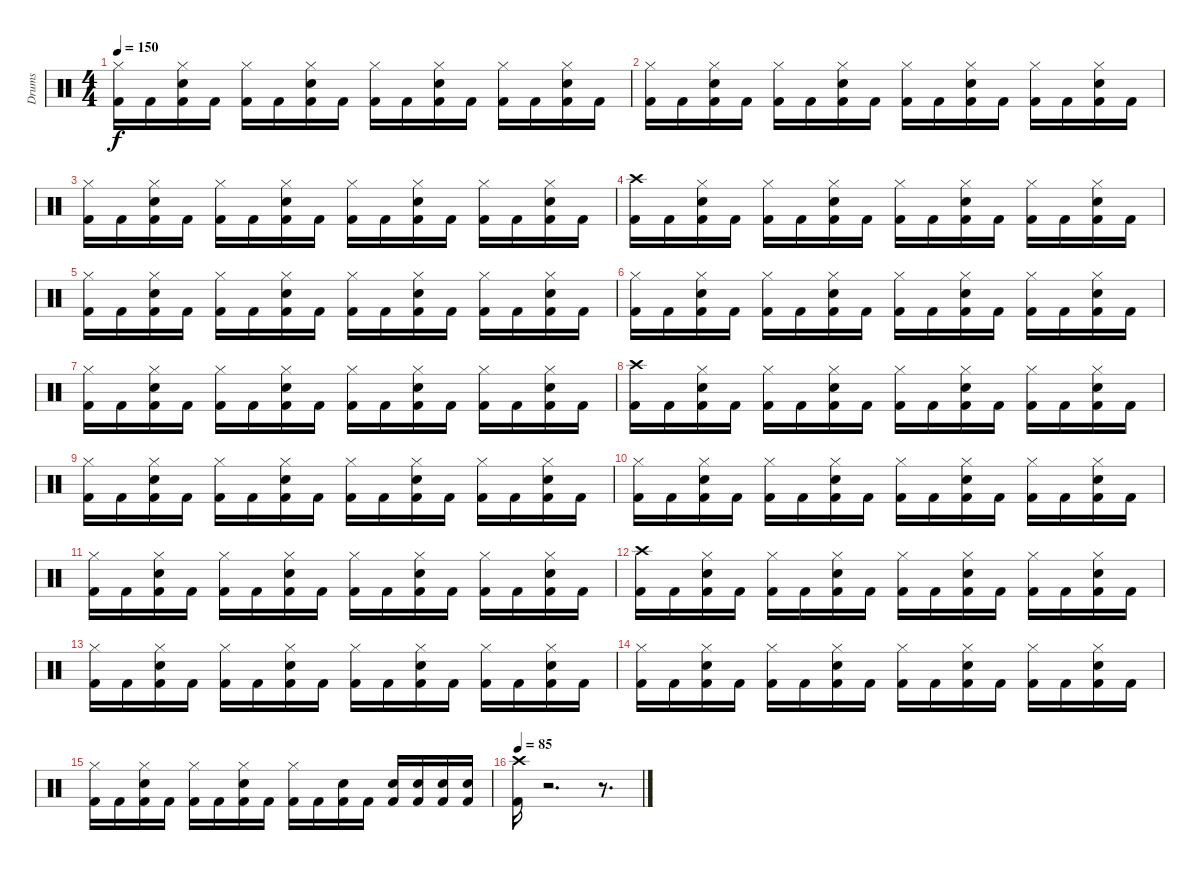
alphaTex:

\track ("Drums" "Drums") {instrument percussion}
\staff {score}
\articulation defaults
\ts (4 4)
\tempo 150
\clef neutral
\ks c
("Hi-Hat (closed)" "Kick (hit) 2").16{dy f} "Kick (hit) 2".16 ("Hi-Hat (closed)" "Electric Snare (hit)" "Kick (hit) 2").16 "Kick (hit) 2".16 ("Hi-Hat (closed)" "Kick (hit) 2").16 "Kick (hit) 2".16 ("Hi-Hat (closed)" "Electric Snare (hit)" "Kick (hit) 2").16 "Kick (hit) 2".16 ("Hi-Hat (closed)" "Kick (hit) 2").16 "Kick (hit) 2".16 ("Hi-Hat (closed)" "Electric Snare (hit)" "Kick (hit) 2").16 "Kick (hit) 2".16 ("Hi-Hat (closed)" "Kick (hit) 2").16 "Kick (hit) 2".16 ("Hi-Hat (closed)" "Electric Snare (hit)" "Kick (hit) 2").16 "Kick (hit) 2".16 |
("Hi-Hat (closed)" "Kick (hit) 2").16 "Kick (hit) 2".16 ("Hi-Hat (closed)" "Electric Snare (hit)" "Kick (hit) 2").16 "Kick (hit) 2".16 ("Hi-Hat (closed)" "Kick (hit) 2").16 "Kick (hit) 2".16 ("Hi-Hat (closed)" "Electric Snare (hit)" "Kick (hit) 2").16 "Kick (hit) 2".16 ("Hi-Hat (closed)" "Kick (hit) 2").16 "Kick (hit) 2".16 ("Hi-Hat (closed)" "Electric Snare (hit)" "Kick (hit) 2").16 "Kick (hit) 2".16 ("Hi-Hat (closed)" "Kick (hit) 2").16 "Kick (hit) 2".16 ("Hi-Hat (closed)" "Electric Snare (hit)" "Kick (hit) 2").16 "Kick (hit) 2".16 |
("Hi-Hat (closed)" "Kick (hit) 2").16 "Kick (hit) 2".16 ("Hi-Hat (closed)" "Electric Snare (hit)" "Kick (hit) 2").16 "Kick (hit) 2".16 ("Hi-Hat (closed)" "Kick (hit) 2").16 "Kick (hit) 2".16 ("Hi-Hat (closed)" "Electric Snare (hit)" "Kick (hit) 2").16 "Kick (hit) 2".16 ("Hi-Hat (closed)" "Kick (hit) 2").16 "Kick (hit) 2".16 ("Hi-Hat (closed)" "Electric Snare (hit)" "Kick (hit) 2").16 "Kick (hit) 2".16 ("Hi-Hat (closed)" "Kick (hit) 2").16 "Kick (hit) 2".16 ("Hi-Hat (closed)" "Electric Snare (hit)" "Kick (hit) 2").16 "Kick (hit) 2".16 |
("Crash high (hit)" "Kick (hit) 2").16 "Kick (hit) 2".16 ("Hi-Hat (closed)" "Electric Snare (hit)" "Kick (hit) 2").16 "Kick (hit) 2".16 ("Hi-Hat (closed)" "Kick (hit) 2").16 "Kick (hit) 2".16 ("Hi-Hat (closed)" "Electric Snare (hit)" "Kick (hit) 2").16 "Kick (hit) 2".16 ("Hi-Hat (closed)" "Kick (hit) 2").16 "Kick (hit) 2".16 ("Hi-Hat (closed)" "Electric Snare (hit)" "Kick (hit) 2").16 "Kick (hit) 2".16 ("Hi-Hat (closed)" "Kick (hit) 2").16 "Kick (hit) 2".16 ("Hi-Hat (closed)" "Electric Snare (hit)" "Kick (hit) 2").16 "Kick (hit) 2".16 |
("Hi-Hat (closed)" "Kick (hit) 2").16 "Kick (hit) 2".16 ("Hi-Hat (closed)" "Electric Snare (hit)" "Kick (hit) 2").16 "Kick (hit) 2".16 ("Hi-Hat (closed)" "Kick (hit) 2").16 "Kick (hit) 2".16 ("Hi-Hat (closed)" "Electric Snare (hit)" "Kick (hit) 2").16 "Kick (hit) 2".16 ("Hi-Hat (closed)" "Kick (hit) 2").16 "Kick (hit) 2".16 ("Hi-Hat (closed)" "Electric Snare (hit)" "Kick (hit) 2").16 "Kick (hit) 2".16 ("Hi-Hat (closed)" "Kick (hit) 2").16 "Kick (hit) 2".16 ("Hi-Hat (closed)" "Electric Snare (hit)" "Kick (hit) 2").16 "Kick (hit) 2".16 |
("Hi-Hat (closed)" "Kick (hit) 2").16 "Kick (hit) 2".16 ("Hi-Hat (closed)" "Electric Snare (hit)" "Kick (hit) 2").16 "Kick (hit) 2".16 ("Hi-Hat (closed)" "Kick (hit) 2").16 "Kick (hit) 2".16 ("Hi-Hat (closed)" "Electric Snare (hit)" "Kick (hit) 2").16 "Kick (hit) 2".16 ("Hi-Hat (closed)" "Kick (hit) 2").16 "Kick (hit) 2".16 ("Hi-Hat (closed)" "Electric Snare (hit)" "Kick (hit) 2").16 "Kick (hit) 2".16 ("Hi-Hat (closed)" "Kick (hit) 2").16 "Kick (hit) 2".16 ("Hi-Hat (closed)" "Electric Snare (hit)" "Kick (hit) 2").16 "Kick (hit) 2".16 |
("Hi-Hat (closed)" "Kick (hit) 2").16 "Kick (hit) 2".16 ("Hi-Hat (closed)" "Electric Snare (hit)" "Kick (hit) 2").16 "Kick (hit) 2".16 ("Hi-Hat (closed)" "Kick (hit) 2").16 "Kick (hit) 2".16 ("Hi-Hat (closed)" "Electric Snare (hit)" "Kick (hit) 2").16 "Kick (hit) 2".16 ("Hi-Hat (closed)" "Kick (hit) 2").16 "Kick (hit) 2".16 ("Hi-Hat (closed)" "Electric Snare (hit)" "Kick (hit) 2").16 "Kick (hit) 2".16 ("Hi-Hat (closed)" "Kick (hit) 2").16 "Kick (hit) 2".16 ("Hi-Hat (closed)" "Electric Snare (hit)" "Kick (hit) 2").16 "Kick (hit) 2".16 |
("Crash high (hit)" "Kick (hit) 2").16 "Kick (hit) 2".16 ("Hi-Hat (closed)" "Electric Snare (hit)" "Kick (hit) 2").16 "Kick (hit) 2".16 ("Hi-Hat (closed)" "Kick (hit) 2").16 "Kick (hit) 2".16 ("Hi-Hat (closed)" "Electric Snare (hit)" "Kick (hit) 2").16 "Kick (hit) 2".16 ("Hi-Hat (closed)" "Kick (hit) 2").16 "Kick (hit) 2".16 ("Hi-Hat (closed)" "Electric Snare (hit)" "Kick (hit) 2").16 "Kick (hit) 2".16 ("Hi-Hat (closed)" "Kick (hit) 2").16 "Kick (hit) 2".16 ("Hi-Hat (closed)" "Electric Snare (hit)" "Kick (hit) 2").16 "Kick (hit) 2".16 |
("Hi-Hat (closed)" "Kick (hit) 2").16 "Kick (hit) 2".16 ("Hi-Hat (closed)" "Electric Snare (hit)" "Kick (hit) 2").16 "Kick (hit) 2".16 ("Hi-Hat (closed)" "Kick (hit) 2").16 "Kick (hit) 2".16 ("Hi-Hat (closed)" "Electric Snare (hit)" "Kick (hit) 2").16 "Kick (hit) 2".16 ("Hi-Hat (closed)" "Kick (hit) 2").16 "Kick (hit) 2".16 ("Hi-Hat (closed)" "Electric Snare (hit)" "Kick (hit) 2").16 "Kick (hit) 2".16 ("Hi-Hat (closed)" "Kick (hit) 2").16 "Kick (hit) 2".16 ("Hi-Hat (closed)" "Electric Snare (hit)" "Kick (hit) 2").16 "Kick (hit) 2".16 |
("Hi-Hat (closed)" "Kick (hit) 2").16 "Kick (hit) 2".16 ("Hi-Hat (closed)" "Electric Snare (hit)" "Kick (hit) 2").16 "Kick (hit) 2".16 ("Hi-Hat (closed)" "Kick (hit) 2").16 "Kick (hit) 2".16 ("Hi-Hat (closed)" "Electric Snare (hit)" "Kick (hit) 2").16 "Kick (hit) 2".16 ("Hi-Hat (closed)" "Kick (hit) 2").16 "Kick (hit) 2".16 ("Hi-Hat (closed)" "Electric Snare (hit)" "Kick (hit) 2").16 "Kick (hit) 2".16 ("Hi-Hat (closed)" "Kick (hit) 2").16 "Kick (hit) 2".16 ("Hi-Hat (closed)" "Electric Snare (hit)" "Kick (hit) 2").16 "Kick (hit) 2".16 |
("Hi-Hat (closed)" "Kick (hit) 2").16 "Kick (hit) 2".16 ("Hi-Hat (closed)" "Electric Snare (hit)" "Kick (hit) 2").16 "Kick (hit) 2".16 ("Hi-Hat (closed)" "Kick (hit) 2").16 "Kick (hit) 2".16 ("Hi-Hat (closed)" "Electric Snare (hit)" "Kick (hit) 2").16 "Kick (hit) 2".16 ("Hi-Hat (closed)" "Kick (hit) 2").16 "Kick (hit) 2".16 ("Hi-Hat (closed)" "Electric Snare (hit)" "Kick (hit) 2").16 "Kick (hit) 2".16 ("Hi-Hat (closed)" "Kick (hit) 2").16 "Kick (hit) 2".16 ("Hi-Hat (closed)" "Electric Snare (hit)" "Kick (hit) 2").16 "Kick (hit) 2".16 |
("Crash high (hit)" "Kick (hit) 2").16 "Kick (hit) 2".16 ("Hi-Hat (closed)" "Electric Snare (hit)" "Kick (hit) 2").16 "Kick (hit) 2".16 ("Hi-Hat (closed)" "Kick (hit) 2").16 "Kick (hit) 2".16 ("Hi-Hat (closed)" "Electric Snare (hit)" "Kick (hit) 2").16 "Kick (hit) 2".16 ("Hi-Hat (closed)" "Kick (hit) 2").16 "Kick (hit) 2".16 ("Hi-Hat (closed)" "Electric Snare (hit)" "Kick (hit) 2").16 "Kick (hit) 2".16 ("Hi-Hat (closed)" "Kick (hit) 2").16 "Kick (hit) 2".16 ("Hi-Hat (closed)" "Electric Snare (hit)" "Kick (hit) 2").16 "Kick (hit) 2".16 |
("Hi-Hat (closed)" "Kick (hit) 2").16 "Kick (hit) 2".16 ("Hi-Hat (closed)" "Electric Snare (hit)" "Kick (hit) 2").16 "Kick (hit) 2".16 ("Hi-Hat (closed)" "Kick (hit) 2").16 "Kick (hit) 2".16 ("Hi-Hat (closed)" "Electric Snare (hit)" "Kick (hit) 2").16 "Kick (hit) 2".16 ("Hi-Hat (closed)" "Kick (hit) 2").16 "Kick (hit) 2".16 ("Hi-Hat (closed)" "Electric Snare (hit)" "Kick (hit) 2").16 "Kick (hit) 2".16 ("Hi-Hat (closed)" "Kick (hit) 2").16 "Kick (hit) 2".16 ("Hi-Hat (closed)" "Electric Snare (hit)" "Kick (hit) 2").16 "Kick (hit) 2".16 |
("Hi-Hat (closed)" "Kick (hit) 2").16 "Kick (hit) 2".16 ("Hi-Hat (closed)" "Electric Snare (hit)" "Kick (hit) 2").16 "Kick (hit) 2".16 ("Hi-Hat (closed)" "Kick (hit) 2").16 "Kick (hit) 2".16 ("Hi-Hat (closed)" "Electric Snare (hit)" "Kick (hit) 2").16 "Kick (hit) 2".16 ("Hi-Hat (closed)" "Kick (hit) 2").16 "Kick (hit) 2".16 ("Hi-Hat (closed)" "Electric Snare (hit)" "Kick (hit) 2").16 "Kick (hit) 2".16 ("Hi-Hat (closed)" "Kick (hit) 2").16 "Kick (hit) 2".16 ("Hi-Hat (closed)" "Electric Snare (hit)" "Kick (hit) 2").16 "Kick (hit) 2".16 |
("Hi-Hat (closed)" "Kick (hit) 2").16 "Kick (hit) 2".16 ("Hi-Hat (closed)" "Electric Snare (hit)" "Kick (hit) 2").16 "Kick (hit) 2".16 ("Hi-Hat (closed)" "Kick (hit) 2").16 "Kick (hit) 2".16 ("Hi-Hat (closed)" "Electric Snare (hit)" "Kick (hit) 2").16 "Kick (hit) 2".16 ("Hi-Hat (closed)" "Kick (hit) 2").16 "Kick (hit) 2".16 ("Electric Snare (hit)" "Kick (hit) 2").16 "Kick (hit) 2".16 ("Electric Snare (hit)" "Kick (hit) 2").16 ("Electric Snare (hit)" "Kick (hit) 2").16 ("Electric Snare (hit)" "Kick (hit) 2").16 ("Electric Snare (hit)" "Kick (hit) 2").16 |
\tempo 85
("Crash high (hit)" "Kick (hit) 2").16 r.2{d} r.8{d}
